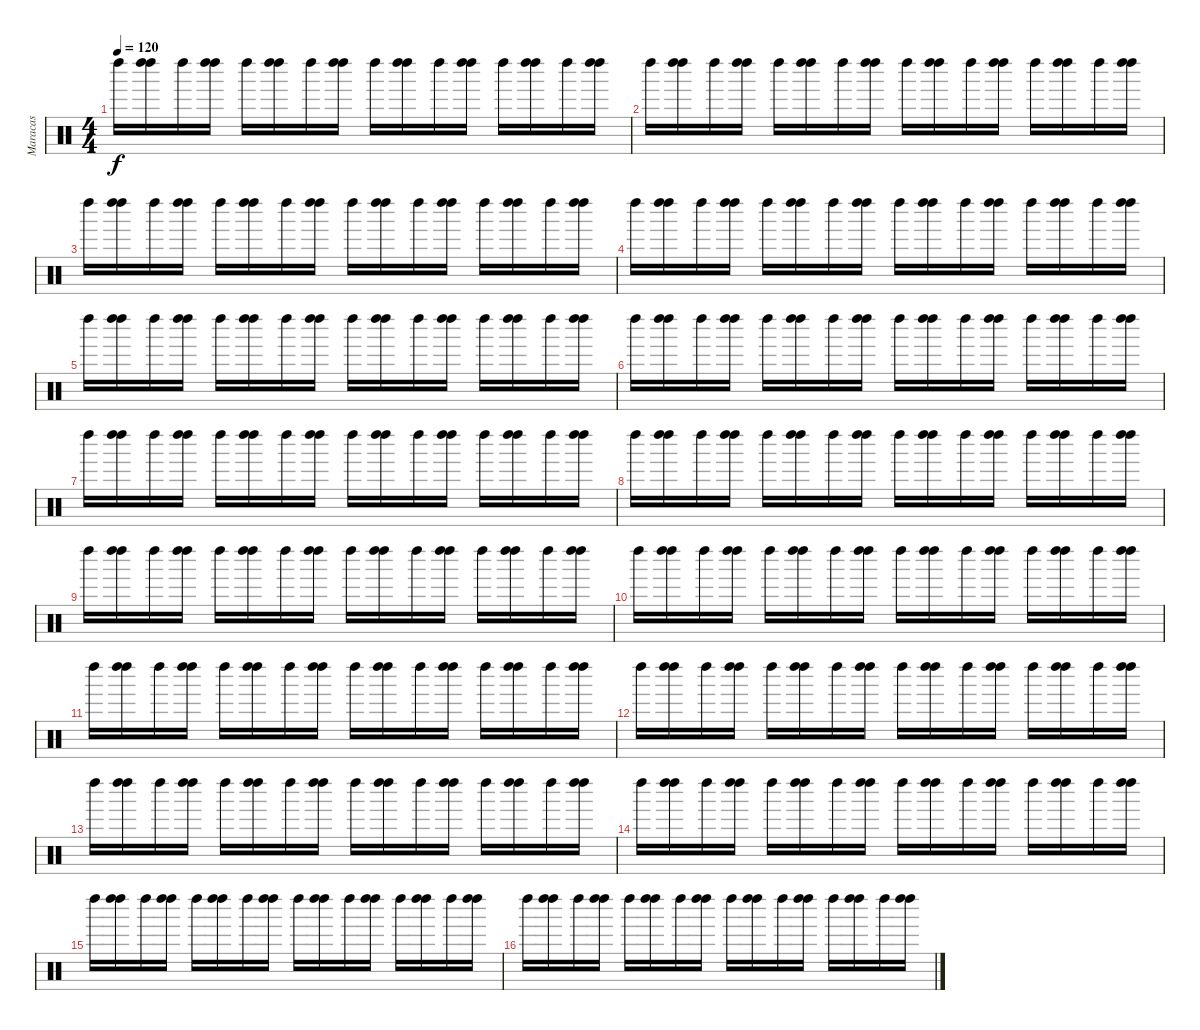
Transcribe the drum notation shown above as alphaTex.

\track ("Maracas" "Maracas") {instrument percussion}
\staff {score}
\articulation defaults
\ts (4 4)
\tempo 120
\clef neutral
\ks c "Left Maraca (hit)".16{dy f}
("Left Maraca (hit)" "Left Maraca (hit)").16 "Left Maraca (hit)".16 ("Left Maraca (hit)" "Left Maraca (hit)").16 "Left Maraca (hit)".16 ("Left Maraca (hit)" "Left Maraca (hit)").16 "Left Maraca (hit)".16 ("Left Maraca (hit)" "Left Maraca (hit)").16 "Left Maraca (hit)".16 ("Left Maraca (hit)" "Left Maraca (hit)").16 "Left Maraca (hit)".16 ("Left Maraca (hit)" "Left Maraca (hit)").16 "Left Maraca (hit)".16 ("Left Maraca (hit)" "Left Maraca (hit)").16 "Left Maraca (hit)".16 ("Left Maraca (hit)" "Left Maraca (hit)").16 |
"Left Maraca (hit)".16 ("Left Maraca (hit)" "Left Maraca (hit)").16 "Left Maraca (hit)".16 ("Left Maraca (hit)" "Left Maraca (hit)").16 "Left Maraca (hit)".16 ("Left Maraca (hit)" "Left Maraca (hit)").16 "Left Maraca (hit)".16 ("Left Maraca (hit)" "Left Maraca (hit)").16 "Left Maraca (hit)".16 ("Left Maraca (hit)" "Left Maraca (hit)").16 "Left Maraca (hit)".16 ("Left Maraca (hit)" "Left Maraca (hit)").16 "Left Maraca (hit)".16 ("Left Maraca (hit)" "Left Maraca (hit)").16 "Left Maraca (hit)".16 ("Left Maraca (hit)" "Left Maraca (hit)").16 |
"Left Maraca (hit)".16 ("Left Maraca (hit)" "Left Maraca (hit)").16 "Left Maraca (hit)".16 ("Left Maraca (hit)" "Left Maraca (hit)").16 "Left Maraca (hit)".16 ("Left Maraca (hit)" "Left Maraca (hit)").16 "Left Maraca (hit)".16 ("Left Maraca (hit)" "Left Maraca (hit)").16 "Left Maraca (hit)".16 ("Left Maraca (hit)" "Left Maraca (hit)").16 "Left Maraca (hit)".16 ("Left Maraca (hit)" "Left Maraca (hit)").16 "Left Maraca (hit)".16 ("Left Maraca (hit)" "Left Maraca (hit)").16 "Left Maraca (hit)".16 ("Left Maraca (hit)" "Left Maraca (hit)").16 |
"Left Maraca (hit)".16 ("Left Maraca (hit)" "Left Maraca (hit)").16 "Left Maraca (hit)".16 ("Left Maraca (hit)" "Left Maraca (hit)").16 "Left Maraca (hit)".16 ("Left Maraca (hit)" "Left Maraca (hit)").16 "Left Maraca (hit)".16 ("Left Maraca (hit)" "Left Maraca (hit)").16 "Left Maraca (hit)".16 ("Left Maraca (hit)" "Left Maraca (hit)").16 "Left Maraca (hit)".16 ("Left Maraca (hit)" "Left Maraca (hit)").16 "Left Maraca (hit)".16 ("Left Maraca (hit)" "Left Maraca (hit)").16 "Left Maraca (hit)".16 ("Left Maraca (hit)" "Left Maraca (hit)").16 |
"Left Maraca (hit)".16 ("Left Maraca (hit)" "Left Maraca (hit)").16 "Left Maraca (hit)".16 ("Left Maraca (hit)" "Left Maraca (hit)").16 "Left Maraca (hit)".16 ("Left Maraca (hit)" "Left Maraca (hit)").16 "Left Maraca (hit)".16 ("Left Maraca (hit)" "Left Maraca (hit)").16 "Left Maraca (hit)".16 ("Left Maraca (hit)" "Left Maraca (hit)").16 "Left Maraca (hit)".16 ("Left Maraca (hit)" "Left Maraca (hit)").16 "Left Maraca (hit)".16 ("Left Maraca (hit)" "Left Maraca (hit)").16 "Left Maraca (hit)".16 ("Left Maraca (hit)" "Left Maraca (hit)").16 |
"Left Maraca (hit)".16 ("Left Maraca (hit)" "Left Maraca (hit)").16 "Left Maraca (hit)".16 ("Left Maraca (hit)" "Left Maraca (hit)").16 "Left Maraca (hit)".16 ("Left Maraca (hit)" "Left Maraca (hit)").16 "Left Maraca (hit)".16 ("Left Maraca (hit)" "Left Maraca (hit)").16 "Left Maraca (hit)".16 ("Left Maraca (hit)" "Left Maraca (hit)").16 "Left Maraca (hit)".16 ("Left Maraca (hit)" "Left Maraca (hit)").16 "Left Maraca (hit)".16 ("Left Maraca (hit)" "Left Maraca (hit)").16 "Left Maraca (hit)".16 ("Left Maraca (hit)" "Left Maraca (hit)").16 |
"Left Maraca (hit)".16 ("Left Maraca (hit)" "Left Maraca (hit)").16 "Left Maraca (hit)".16 ("Left Maraca (hit)" "Left Maraca (hit)").16 "Left Maraca (hit)".16 ("Left Maraca (hit)" "Left Maraca (hit)").16 "Left Maraca (hit)".16 ("Left Maraca (hit)" "Left Maraca (hit)").16 "Left Maraca (hit)".16 ("Left Maraca (hit)" "Left Maraca (hit)").16 "Left Maraca (hit)".16 ("Left Maraca (hit)" "Left Maraca (hit)").16 "Left Maraca (hit)".16 ("Left Maraca (hit)" "Left Maraca (hit)").16 "Left Maraca (hit)".16 ("Left Maraca (hit)" "Left Maraca (hit)").16 |
"Left Maraca (hit)".16 ("Left Maraca (hit)" "Left Maraca (hit)").16 "Left Maraca (hit)".16 ("Left Maraca (hit)" "Left Maraca (hit)").16 "Left Maraca (hit)".16 ("Left Maraca (hit)" "Left Maraca (hit)").16 "Left Maraca (hit)".16 ("Left Maraca (hit)" "Left Maraca (hit)").16 "Left Maraca (hit)".16 ("Left Maraca (hit)" "Left Maraca (hit)").16 "Left Maraca (hit)".16 ("Left Maraca (hit)" "Left Maraca (hit)").16 "Left Maraca (hit)".16 ("Left Maraca (hit)" "Left Maraca (hit)").16 "Left Maraca (hit)".16 ("Left Maraca (hit)" "Left Maraca (hit)").16 |
"Left Maraca (hit)".16 ("Left Maraca (hit)" "Left Maraca (hit)").16 "Left Maraca (hit)".16 ("Left Maraca (hit)" "Left Maraca (hit)").16 "Left Maraca (hit)".16 ("Left Maraca (hit)" "Left Maraca (hit)").16 "Left Maraca (hit)".16 ("Left Maraca (hit)" "Left Maraca (hit)").16 "Left Maraca (hit)".16 ("Left Maraca (hit)" "Left Maraca (hit)").16 "Left Maraca (hit)".16 ("Left Maraca (hit)" "Left Maraca (hit)").16 "Left Maraca (hit)".16 ("Left Maraca (hit)" "Left Maraca (hit)").16 "Left Maraca (hit)".16 ("Left Maraca (hit)" "Left Maraca (hit)").16 |
"Left Maraca (hit)".16 ("Left Maraca (hit)" "Left Maraca (hit)").16 "Left Maraca (hit)".16 ("Left Maraca (hit)" "Left Maraca (hit)").16 "Left Maraca (hit)".16 ("Left Maraca (hit)" "Left Maraca (hit)").16 "Left Maraca (hit)".16 ("Left Maraca (hit)" "Left Maraca (hit)").16 "Left Maraca (hit)".16 ("Left Maraca (hit)" "Left Maraca (hit)").16 "Left Maraca (hit)".16 ("Left Maraca (hit)" "Left Maraca (hit)").16 "Left Maraca (hit)".16 ("Left Maraca (hit)" "Left Maraca (hit)").16 "Left Maraca (hit)".16 ("Left Maraca (hit)" "Left Maraca (hit)").16 |
"Left Maraca (hit)".16 ("Left Maraca (hit)" "Left Maraca (hit)").16 "Left Maraca (hit)".16 ("Left Maraca (hit)" "Left Maraca (hit)").16 "Left Maraca (hit)".16 ("Left Maraca (hit)" "Left Maraca (hit)").16 "Left Maraca (hit)".16 ("Left Maraca (hit)" "Left Maraca (hit)").16 "Left Maraca (hit)".16 ("Left Maraca (hit)" "Left Maraca (hit)").16 "Left Maraca (hit)".16 ("Left Maraca (hit)" "Left Maraca (hit)").16 "Left Maraca (hit)".16 ("Left Maraca (hit)" "Left Maraca (hit)").16 "Left Maraca (hit)".16 ("Left Maraca (hit)" "Left Maraca (hit)").16 |
"Left Maraca (hit)".16 ("Left Maraca (hit)" "Left Maraca (hit)").16 "Left Maraca (hit)".16 ("Left Maraca (hit)" "Left Maraca (hit)").16 "Left Maraca (hit)".16 ("Left Maraca (hit)" "Left Maraca (hit)").16 "Left Maraca (hit)".16 ("Left Maraca (hit)" "Left Maraca (hit)").16 "Left Maraca (hit)".16 ("Left Maraca (hit)" "Left Maraca (hit)").16 "Left Maraca (hit)".16 ("Left Maraca (hit)" "Left Maraca (hit)").16 "Left Maraca (hit)".16 ("Left Maraca (hit)" "Left Maraca (hit)").16 "Left Maraca (hit)".16 ("Left Maraca (hit)" "Left Maraca (hit)").16 |
"Left Maraca (hit)".16 ("Left Maraca (hit)" "Left Maraca (hit)").16 "Left Maraca (hit)".16 ("Left Maraca (hit)" "Left Maraca (hit)").16 "Left Maraca (hit)".16 ("Left Maraca (hit)" "Left Maraca (hit)").16 "Left Maraca (hit)".16 ("Left Maraca (hit)" "Left Maraca (hit)").16 "Left Maraca (hit)".16 ("Left Maraca (hit)" "Left Maraca (hit)").16 "Left Maraca (hit)".16 ("Left Maraca (hit)" "Left Maraca (hit)").16 "Left Maraca (hit)".16 ("Left Maraca (hit)" "Left Maraca (hit)").16 "Left Maraca (hit)".16 ("Left Maraca (hit)" "Left Maraca (hit)").16 |
"Left Maraca (hit)".16 ("Left Maraca (hit)" "Left Maraca (hit)").16 "Left Maraca (hit)".16 ("Left Maraca (hit)" "Left Maraca (hit)").16 "Left Maraca (hit)".16 ("Left Maraca (hit)" "Left Maraca (hit)").16 "Left Maraca (hit)".16 ("Left Maraca (hit)" "Left Maraca (hit)").16 "Left Maraca (hit)".16 ("Left Maraca (hit)" "Left Maraca (hit)").16 "Left Maraca (hit)".16 ("Left Maraca (hit)" "Left Maraca (hit)").16 "Left Maraca (hit)".16 ("Left Maraca (hit)" "Left Maraca (hit)").16 "Left Maraca (hit)".16 ("Left Maraca (hit)" "Left Maraca (hit)").16 |
"Left Maraca (hit)".16 ("Left Maraca (hit)" "Left Maraca (hit)").16 "Left Maraca (hit)".16 ("Left Maraca (hit)" "Left Maraca (hit)").16 "Left Maraca (hit)".16 ("Left Maraca (hit)" "Left Maraca (hit)").16 "Left Maraca (hit)".16 ("Left Maraca (hit)" "Left Maraca (hit)").16 "Left Maraca (hit)".16 ("Left Maraca (hit)" "Left Maraca (hit)").16 "Left Maraca (hit)".16 ("Left Maraca (hit)" "Left Maraca (hit)").16 "Left Maraca (hit)".16 ("Left Maraca (hit)" "Left Maraca (hit)").16 "Left Maraca (hit)".16 ("Left Maraca (hit)" "Left Maraca (hit)").16 |
"Left Maraca (hit)".16 ("Left Maraca (hit)" "Left Maraca (hit)").16 "Left Maraca (hit)".16 ("Left Maraca (hit)" "Left Maraca (hit)").16 "Left Maraca (hit)".16 ("Left Maraca (hit)" "Left Maraca (hit)").16 "Left Maraca (hit)".16 ("Left Maraca (hit)" "Left Maraca (hit)").16 "Left Maraca (hit)".16 ("Left Maraca (hit)" "Left Maraca (hit)").16 "Left Maraca (hit)".16 ("Left Maraca (hit)" "Left Maraca (hit)").16 "Left Maraca (hit)".16 ("Left Maraca (hit)" "Left Maraca (hit)").16 "Left Maraca (hit)".16 ("Left Maraca (hit)" "Left Maraca (hit)").16
